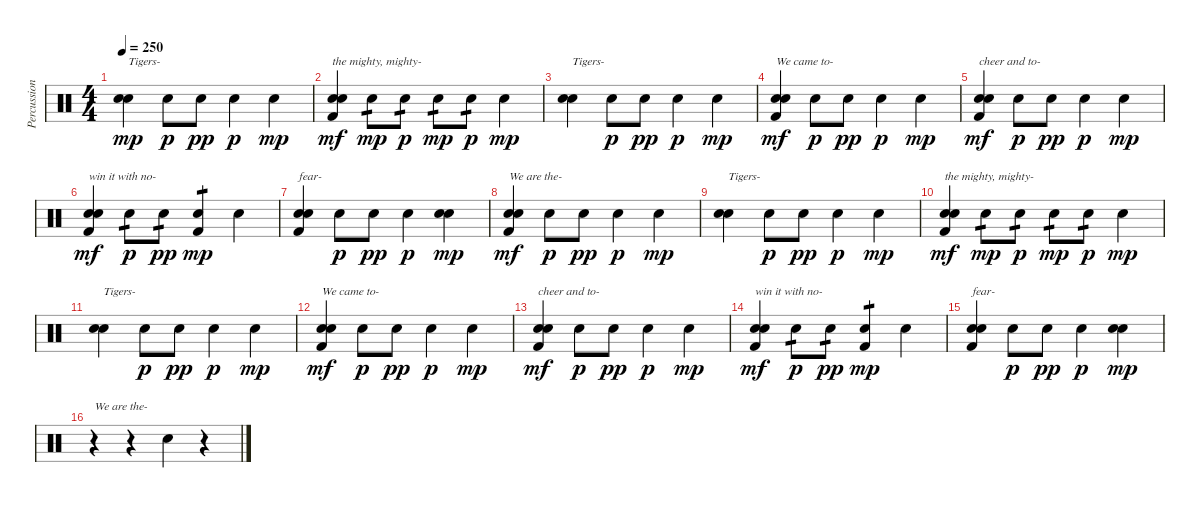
\track ("Percussion" "Percussion") {instrument percussion}
\staff {score}
\articulation defaults
\ts (4 4)
\tempo 250
\clef neutral
\ks c
("Snare (hit) 2" "Snare (hit) 2").4{txt "Tigers-" dy mp} "Snare (hit) 2".8{dy p} "Snare (hit) 2".8{dy pp} "Snare (hit) 2".4{dy p} "Snare (hit) 2".4{dy mp} |
("Snare (hit) 2" "Snare (hit) 2" "Kick (hit) 2").4{txt "the mighty, mighty-" dy mf} "Snare (hit) 2".8{tp 1 dy mp} "Snare (hit) 2".8{tp 1 dy p} "Snare (hit) 2".8{tp 1 dy mp} "Snare (hit) 2".8{tp 1 dy p} "Snare (hit) 2".4{dy mp} |
("Snare (hit) 2" "Snare (hit) 2").4{txt "Tigers-"} "Snare (hit) 2".8{dy p} "Snare (hit) 2".8{dy pp} "Snare (hit) 2".4{dy p} "Snare (hit) 2".4{dy mp} |
("Snare (hit) 2" "Snare (hit) 2" "Kick (hit) 2").4{txt "We came to-" dy mf} "Snare (hit) 2".8{dy p} "Snare (hit) 2".8{dy pp} "Snare (hit) 2".4{dy p} "Snare (hit) 2".4{dy mp} |
("Snare (hit) 2" "Snare (hit) 2" "Kick (hit) 2").4{txt "cheer and to-" dy mf} "Snare (hit) 2".8{dy p} "Snare (hit) 2".8{dy pp} "Snare (hit) 2".4{dy p} "Snare (hit) 2".4{dy mp} |
("Snare (hit) 2" "Snare (hit) 2" "Kick (hit) 2").4{txt "win it with no-" dy mf} "Snare (hit) 2".8{tp 1 dy p} "Snare (hit) 2".8{tp 1 dy pp} ("Snare (hit) 2" "Kick (hit) 2").4{tp 1 dy mp} "Snare (hit) 2".4 |
("Snare (hit) 2" "Snare (hit) 2" "Kick (hit) 2").4{txt "fear-"} "Snare (hit) 2".8{dy p} "Snare (hit) 2".8{dy pp} "Snare (hit) 2".4{dy p} ("Snare (hit) 2" "Snare (hit) 2").4{dy mp} |
("Snare (hit) 2" "Snare (hit) 2" "Kick (hit) 2").4{txt "We are the-" dy mf} "Snare (hit) 2".8{dy p} "Snare (hit) 2".8{dy pp} "Snare (hit) 2".4{dy p} "Snare (hit) 2".4{dy mp} |
("Snare (hit) 2" "Snare (hit) 2").4{txt "Tigers-"} "Snare (hit) 2".8{dy p} "Snare (hit) 2".8{dy pp} "Snare (hit) 2".4{dy p} "Snare (hit) 2".4{dy mp} |
("Snare (hit) 2" "Snare (hit) 2" "Kick (hit) 2").4{txt "the mighty, mighty-" dy mf} "Snare (hit) 2".8{tp 1 dy mp} "Snare (hit) 2".8{tp 1 dy p} "Snare (hit) 2".8{tp 1 dy mp} "Snare (hit) 2".8{tp 1 dy p} "Snare (hit) 2".4{dy mp} |
("Snare (hit) 2" "Snare (hit) 2").4{txt "Tigers-"} "Snare (hit) 2".8{dy p} "Snare (hit) 2".8{dy pp} "Snare (hit) 2".4{dy p} "Snare (hit) 2".4{dy mp} |
("Snare (hit) 2" "Snare (hit) 2" "Kick (hit) 2").4{txt "We came to-" dy mf} "Snare (hit) 2".8{dy p} "Snare (hit) 2".8{dy pp} "Snare (hit) 2".4{dy p} "Snare (hit) 2".4{dy mp} |
("Snare (hit) 2" "Snare (hit) 2" "Kick (hit) 2").4{txt "cheer and to-" dy mf} "Snare (hit) 2".8{dy p} "Snare (hit) 2".8{dy pp} "Snare (hit) 2".4{dy p} "Snare (hit) 2".4{dy mp} |
("Snare (hit) 2" "Snare (hit) 2" "Kick (hit) 2").4{txt "win it with no-" dy mf} "Snare (hit) 2".8{tp 1 dy p} "Snare (hit) 2".8{tp 1 dy pp} ("Snare (hit) 2" "Kick (hit) 2").4{tp 1 dy mp} "Snare (hit) 2".4 |
("Snare (hit) 2" "Snare (hit) 2" "Kick (hit) 2").4{txt "fear-"} "Snare (hit) 2".8{dy p} "Snare (hit) 2".8{dy pp} "Snare (hit) 2".4{dy p} ("Snare (hit) 2" "Snare (hit) 2").4{dy mp} |
r.4{txt "We are the-"} r.4 "Snare (hit) 2".4 r.4
